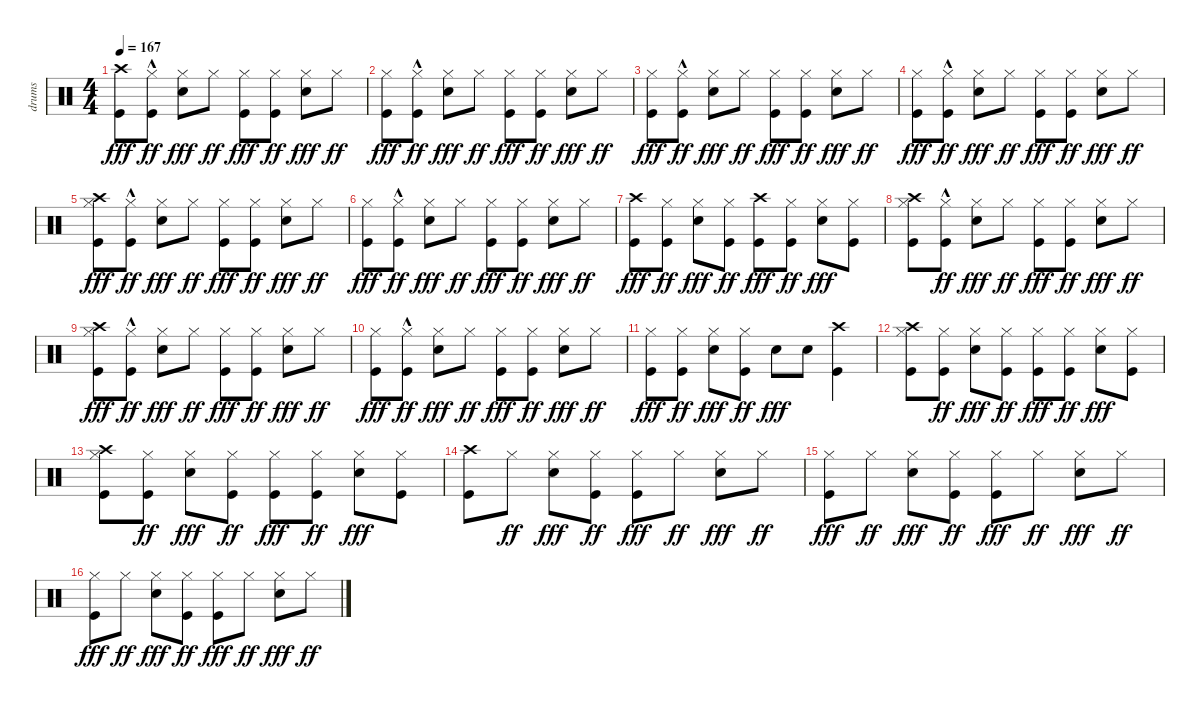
\track ("drums" "drums") {instrument percussion}
\staff {score}
\articulation defaults
\ts (4 4)
\tempo 167
\clef neutral
\ks c
("Kick (hit)" "Crash high (hit)").8{dy fff} ("Kick (hit)"{hac} "Hi-Hat (closed)").8{dy ff} ("Snare (hit) 2" "Hi-Hat (closed)").8{dy fff} "Hi-Hat (closed)".8{dy ff} ("Kick (hit)" "Hi-Hat (closed)").8{dy fff} ("Kick (hit)" "Hi-Hat (closed)").8{dy ff} ("Snare (hit) 2" "Hi-Hat (closed)").8{dy fff} "Hi-Hat (closed)".8{dy ff} |
("Kick (hit)" "Hi-Hat (closed)").8{dy fff} ("Kick (hit)"{hac} "Hi-Hat (closed)").8{dy ff} ("Snare (hit) 2" "Hi-Hat (closed)").8{dy fff} "Hi-Hat (closed)".8{dy ff} ("Kick (hit)" "Hi-Hat (closed)").8{dy fff} ("Kick (hit)" "Hi-Hat (closed)").8{dy ff} ("Snare (hit) 2" "Hi-Hat (closed)").8{dy fff} "Hi-Hat (closed)".8{dy ff} |
("Kick (hit)" "Hi-Hat (closed)").8{dy fff} ("Kick (hit)"{hac} "Hi-Hat (closed)").8{dy ff} ("Snare (hit) 2" "Hi-Hat (closed)").8{dy fff} "Hi-Hat (closed)".8{dy ff} ("Kick (hit)" "Hi-Hat (closed)").8{dy fff} ("Kick (hit)" "Hi-Hat (closed)").8{dy ff} ("Snare (hit) 2" "Hi-Hat (closed)").8{dy fff} "Hi-Hat (closed)".8{dy ff} |
("Kick (hit)" "Hi-Hat (closed)").8{dy fff} ("Kick (hit)"{hac} "Hi-Hat (closed)").8{dy ff} ("Snare (hit) 2" "Hi-Hat (closed)").8{dy fff} "Hi-Hat (closed)".8{dy ff} ("Kick (hit)" "Hi-Hat (closed)").8{dy fff} ("Kick (hit)" "Hi-Hat (closed)").8{dy ff} ("Snare (hit) 2" "Hi-Hat (closed)").8{dy fff} "Hi-Hat (closed)".8{dy ff} |
("Kick (hit)" "Hi-Hat (closed)" "Crash high (hit)").8{dy fff} ("Kick (hit)"{hac} "Hi-Hat (closed)").8{dy ff} ("Snare (hit) 2" "Hi-Hat (closed)").8{dy fff} "Hi-Hat (closed)".8{dy ff} ("Kick (hit)" "Hi-Hat (closed)").8{dy fff} ("Kick (hit)" "Hi-Hat (closed)").8{dy ff} ("Snare (hit) 2" "Hi-Hat (closed)").8{dy fff} "Hi-Hat (closed)".8{dy ff} |
("Kick (hit)" "Hi-Hat (closed)").8{dy fff} ("Kick (hit)"{hac} "Hi-Hat (closed)").8{dy ff} ("Snare (hit) 2" "Hi-Hat (closed)").8{dy fff} "Hi-Hat (closed)".8{dy ff} ("Kick (hit)" "Hi-Hat (closed)").8{dy fff} ("Kick (hit)" "Hi-Hat (closed)").8{dy ff} ("Snare (hit) 2" "Hi-Hat (closed)").8{dy fff} "Hi-Hat (closed)".8{dy ff} |
("Kick (hit)" "Crash high (hit)").8{dy fff} ("Kick (hit)" "Hi-Hat (closed)").8{dy ff} ("Snare (hit) 2" "Hi-Hat (closed)").8{dy fff} ("Kick (hit)" "Hi-Hat (closed)").8{dy ff} ("Kick (hit)" "Crash high (hit)").8{dy fff} ("Kick (hit)" "Hi-Hat (closed)").8{dy ff} ("Snare (hit) 2" "Hi-Hat (closed)").8{dy fff} ("Hi-Hat (closed)" "Kick (hit)").8 |
("Kick (hit)" "Hi-Hat (closed)" "Crash high (hit)").8 ("Kick (hit)"{hac} "Hi-Hat (closed)").8{dy ff} ("Snare (hit) 2" "Hi-Hat (closed)").8{dy fff} "Hi-Hat (closed)".8{dy ff} ("Kick (hit)" "Hi-Hat (closed)").8{dy fff} ("Kick (hit)" "Hi-Hat (closed)").8{dy ff} ("Snare (hit) 2" "Hi-Hat (closed)").8{dy fff} "Hi-Hat (closed)".8{dy ff} |
("Kick (hit)" "Hi-Hat (closed)" "Crash high (hit)").8{dy fff} ("Kick (hit)"{hac} "Hi-Hat (closed)").8{dy ff} ("Snare (hit) 2" "Hi-Hat (closed)").8{dy fff} "Hi-Hat (closed)".8{dy ff} ("Kick (hit)" "Hi-Hat (closed)").8{dy fff} ("Kick (hit)" "Hi-Hat (closed)").8{dy ff} ("Snare (hit) 2" "Hi-Hat (closed)").8{dy fff} "Hi-Hat (closed)".8{dy ff} |
("Kick (hit)" "Hi-Hat (closed)").8{dy fff} ("Kick (hit)"{hac} "Hi-Hat (closed)").8{dy ff} ("Snare (hit) 2" "Hi-Hat (closed)").8{dy fff} "Hi-Hat (closed)".8{dy ff} ("Kick (hit)" "Hi-Hat (closed)").8{dy fff} ("Kick (hit)" "Hi-Hat (closed)").8{dy ff} ("Snare (hit) 2" "Hi-Hat (closed)").8{dy fff} "Hi-Hat (closed)".8{dy ff} |
("Kick (hit)" "Hi-Hat (closed)").8{dy fff} ("Kick (hit)" "Hi-Hat (closed)").8{dy ff} ("Snare (hit) 2" "Hi-Hat (closed)").8{dy fff} ("Kick (hit)" "Hi-Hat (closed)").8{dy ff} "Snare (hit) 2".8{dy fff} "Snare (hit) 2".8 ("Crash high (hit)" "Kick (hit)").4 |
("Kick (hit)" "Hi-Hat (closed)" "Crash high (hit)").8 ("Kick (hit)" "Hi-Hat (closed)").8{dy ff} ("Snare (hit) 2" "Hi-Hat (closed)").8{dy fff} ("Kick (hit)" "Hi-Hat (closed)").8{dy ff} ("Kick (hit)" "Hi-Hat (closed)").8{dy fff} ("Kick (hit)" "Hi-Hat (closed)").8{dy ff} ("Snare (hit) 2" "Hi-Hat (closed)").8{dy fff} ("Hi-Hat (closed)" "Kick (hit)").8 |
("Kick (hit)" "Hi-Hat (closed)" "Crash high (hit)").8 ("Kick (hit)" "Hi-Hat (closed)").8{dy ff} ("Snare (hit) 2" "Hi-Hat (closed)").8{dy fff} ("Kick (hit)" "Hi-Hat (closed)").8{dy ff} ("Kick (hit)" "Hi-Hat (closed)").8{dy fff} ("Kick (hit)" "Hi-Hat (closed)").8{dy ff} ("Snare (hit) 2" "Hi-Hat (closed)").8{dy fff} ("Hi-Hat (closed)" "Kick (hit)").8 |
("Kick (hit)" "Crash high (hit)").8 "Hi-Hat (closed)".8{dy ff} ("Snare (hit) 2" "Hi-Hat (closed)").8{dy fff} ("Kick (hit)" "Hi-Hat (closed)").8{dy ff} ("Kick (hit)" "Hi-Hat (closed)").8{dy fff} "Hi-Hat (closed)".8{dy ff} ("Snare (hit) 2" "Hi-Hat (closed)").8{dy fff} "Hi-Hat (closed)".8{dy ff} |
("Kick (hit)" "Hi-Hat (closed)").8{dy fff} "Hi-Hat (closed)".8{dy ff} ("Snare (hit) 2" "Hi-Hat (closed)").8{dy fff} ("Kick (hit)" "Hi-Hat (closed)").8{dy ff} ("Kick (hit)" "Hi-Hat (closed)").8{dy fff} "Hi-Hat (closed)".8{dy ff} ("Snare (hit) 2" "Hi-Hat (closed)").8{dy fff} "Hi-Hat (closed)".8{dy ff} |
("Kick (hit)" "Hi-Hat (closed)").8{dy fff} "Hi-Hat (closed)".8{dy ff} ("Snare (hit) 2" "Hi-Hat (closed)").8{dy fff} ("Kick (hit)" "Hi-Hat (closed)").8{dy ff} ("Kick (hit)" "Hi-Hat (closed)").8{dy fff} "Hi-Hat (closed)".8{dy ff} ("Snare (hit) 2" "Hi-Hat (closed)").8{dy fff} "Hi-Hat (closed)".8{dy ff}
